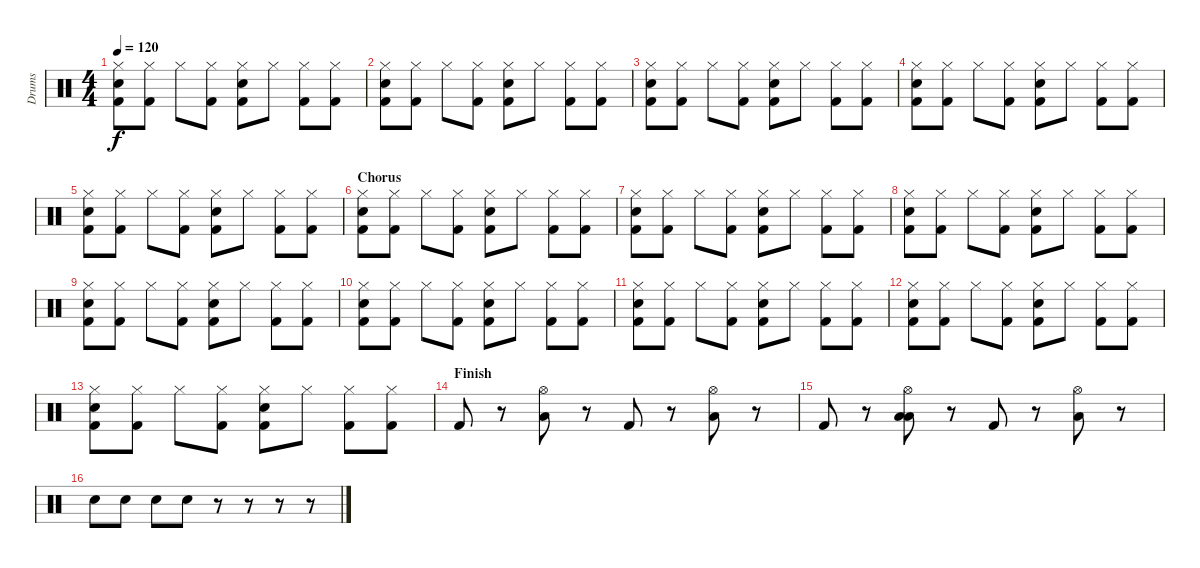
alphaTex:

\track ("Drums" "Drums") {instrument percussion}
\staff {score}
\articulation defaults
\ts (4 4)
\tempo 120
\clef neutral
\ks c
("Hi-Hat (closed)" "Snare (hit) 2" "Kick (hit) 2").8{dy f} ("Hi-Hat (closed)" "Kick (hit) 2").8 "Hi-Hat (closed)".8 ("Hi-Hat (closed)" "Kick (hit) 2").8 ("Hi-Hat (closed)" "Snare (hit) 2" "Kick (hit) 2").8 "Hi-Hat (closed)".8 ("Hi-Hat (closed)" "Kick (hit) 2").8 ("Hi-Hat (closed)" "Kick (hit) 2").8 |
("Hi-Hat (closed)" "Snare (hit) 2" "Kick (hit) 2").8 ("Hi-Hat (closed)" "Kick (hit) 2").8 "Hi-Hat (closed)".8 ("Hi-Hat (closed)" "Kick (hit) 2").8 ("Hi-Hat (closed)" "Snare (hit) 2" "Kick (hit) 2").8 "Hi-Hat (closed)".8 ("Hi-Hat (closed)" "Kick (hit) 2").8 ("Hi-Hat (closed)" "Kick (hit) 2").8 |
("Hi-Hat (closed)" "Snare (hit) 2" "Kick (hit) 2").8 ("Hi-Hat (closed)" "Kick (hit) 2").8 "Hi-Hat (closed)".8 ("Hi-Hat (closed)" "Kick (hit) 2").8 ("Hi-Hat (closed)" "Snare (hit) 2" "Kick (hit) 2").8 "Hi-Hat (closed)".8 ("Hi-Hat (closed)" "Kick (hit) 2").8 ("Hi-Hat (closed)" "Kick (hit) 2").8 |
("Hi-Hat (closed)" "Snare (hit) 2" "Kick (hit) 2").8 ("Hi-Hat (closed)" "Kick (hit) 2").8 "Hi-Hat (closed)".8 ("Hi-Hat (closed)" "Kick (hit) 2").8 ("Hi-Hat (closed)" "Snare (hit) 2" "Kick (hit) 2").8 "Hi-Hat (closed)".8 ("Hi-Hat (closed)" "Kick (hit) 2").8 ("Hi-Hat (closed)" "Kick (hit) 2").8 |
("Hi-Hat (closed)" "Snare (hit) 2" "Kick (hit) 2").8 ("Hi-Hat (closed)" "Kick (hit) 2").8 "Hi-Hat (closed)".8 ("Hi-Hat (closed)" "Kick (hit) 2").8 ("Hi-Hat (closed)" "Snare (hit) 2" "Kick (hit) 2").8 "Hi-Hat (closed)".8 ("Hi-Hat (closed)" "Kick (hit) 2").8 ("Hi-Hat (closed)" "Kick (hit) 2").8 |
\section ("" "Chorus")
("Hi-Hat (closed)" "Snare (hit) 2" "Kick (hit) 2").8 ("Hi-Hat (closed)" "Kick (hit) 2").8 "Hi-Hat (closed)".8 ("Hi-Hat (closed)" "Kick (hit) 2").8 ("Hi-Hat (closed)" "Snare (hit) 2" "Kick (hit) 2").8 "Hi-Hat (closed)".8 ("Hi-Hat (closed)" "Kick (hit) 2").8 ("Hi-Hat (closed)" "Kick (hit) 2").8 |
("Hi-Hat (closed)" "Snare (hit) 2" "Kick (hit) 2").8 ("Hi-Hat (closed)" "Kick (hit) 2").8 "Hi-Hat (closed)".8 ("Hi-Hat (closed)" "Kick (hit) 2").8 ("Hi-Hat (closed)" "Snare (hit) 2" "Kick (hit) 2").8 "Hi-Hat (closed)".8 ("Hi-Hat (closed)" "Kick (hit) 2").8 ("Hi-Hat (closed)" "Kick (hit) 2").8 |
("Hi-Hat (closed)" "Snare (hit) 2" "Kick (hit) 2").8 ("Hi-Hat (closed)" "Kick (hit) 2").8 "Hi-Hat (closed)".8 ("Hi-Hat (closed)" "Kick (hit) 2").8 ("Hi-Hat (closed)" "Snare (hit) 2" "Kick (hit) 2").8 "Hi-Hat (closed)".8 ("Hi-Hat (closed)" "Kick (hit) 2").8 ("Hi-Hat (closed)" "Kick (hit) 2").8 |
("Hi-Hat (closed)" "Snare (hit) 2" "Kick (hit) 2").8 ("Hi-Hat (closed)" "Kick (hit) 2").8 "Hi-Hat (closed)".8 ("Hi-Hat (closed)" "Kick (hit) 2").8 ("Hi-Hat (closed)" "Snare (hit) 2" "Kick (hit) 2").8 "Hi-Hat (closed)".8 ("Hi-Hat (closed)" "Kick (hit) 2").8 ("Hi-Hat (closed)" "Kick (hit) 2").8 |
("Hi-Hat (closed)" "Snare (hit) 2" "Kick (hit) 2").8 ("Hi-Hat (closed)" "Kick (hit) 2").8 "Hi-Hat (closed)".8 ("Hi-Hat (closed)" "Kick (hit) 2").8 ("Hi-Hat (closed)" "Snare (hit) 2" "Kick (hit) 2").8 "Hi-Hat (closed)".8 ("Hi-Hat (closed)" "Kick (hit) 2").8 ("Hi-Hat (closed)" "Kick (hit) 2").8 |
("Hi-Hat (closed)" "Snare (hit) 2" "Kick (hit) 2").8 ("Hi-Hat (closed)" "Kick (hit) 2").8 "Hi-Hat (closed)".8 ("Hi-Hat (closed)" "Kick (hit) 2").8 ("Hi-Hat (closed)" "Snare (hit) 2" "Kick (hit) 2").8 "Hi-Hat (closed)".8 ("Hi-Hat (closed)" "Kick (hit) 2").8 ("Hi-Hat (closed)" "Kick (hit) 2").8 |
("Hi-Hat (closed)" "Snare (hit) 2" "Kick (hit) 2").8 ("Hi-Hat (closed)" "Kick (hit) 2").8 "Hi-Hat (closed)".8 ("Hi-Hat (closed)" "Kick (hit) 2").8 ("Hi-Hat (closed)" "Snare (hit) 2" "Kick (hit) 2").8 "Hi-Hat (closed)".8 ("Hi-Hat (closed)" "Kick (hit) 2").8 ("Hi-Hat (closed)" "Kick (hit) 2").8 |
("Hi-Hat (closed)" "Snare (hit) 2" "Kick (hit) 2").8 ("Hi-Hat (closed)" "Kick (hit) 2").8 "Hi-Hat (closed)".8 ("Hi-Hat (closed)" "Kick (hit) 2").8 ("Hi-Hat (closed)" "Snare (hit) 2" "Kick (hit) 2").8 "Hi-Hat (closed)".8 ("Hi-Hat (closed)" "Kick (hit) 2").8 ("Hi-Hat (closed)" "Kick (hit) 2").8 |
\section ("" "Finish")
"Kick (hit) 2".8 r.8 ("Hi-Hat (open)" "Low Floor Tom (hit)").8 r.8 "Kick (hit) 2".8 r.8 ("Hi-Hat (open)" "Low Floor Tom (hit)").8 r.8 |
"Kick (hit) 2".8 r.8 ("Hi-Hat (open)" "Low Floor Tom (hit)" "Low Floor Tom (hit)").8 r.8 "Kick (hit) 2".8 r.8 ("Hi-Hat (open)" "Low Floor Tom (hit)").8 r.8 |
"Snare (hit) 2".8 "Snare (hit) 2".8 "Snare (hit) 2".8 "Snare (hit) 2".8 r.8 r.8 r.8 r.8
